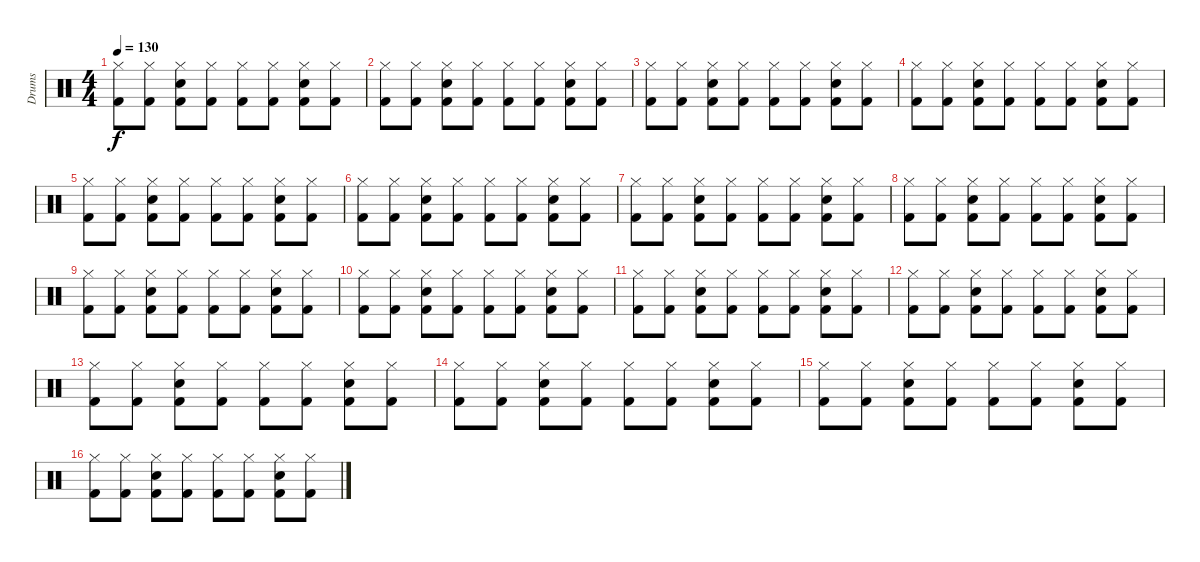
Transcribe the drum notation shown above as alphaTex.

\track ("Drums" "Drums") {instrument percussion}
\staff {score}
\articulation defaults
\ts (4 4)
\tempo 130
\clef neutral
\ks c
("Kick (hit) 2" "Hi-Hat (closed)").8{dy f} ("Kick (hit) 2" "Hi-Hat (closed)").8 ("Snare (hit) 2" "Kick (hit) 2" "Hi-Hat (closed)").8 ("Kick (hit) 2" "Hi-Hat (closed)").8 ("Kick (hit) 2" "Hi-Hat (closed)").8 ("Kick (hit) 2" "Hi-Hat (closed)").8 ("Snare (hit) 2" "Kick (hit) 2" "Hi-Hat (closed)").8 ("Kick (hit) 2" "Hi-Hat (closed)").8 |
("Kick (hit) 2" "Hi-Hat (closed)").8 ("Kick (hit) 2" "Hi-Hat (closed)").8 ("Snare (hit) 2" "Kick (hit) 2" "Hi-Hat (closed)").8 ("Kick (hit) 2" "Hi-Hat (closed)").8 ("Kick (hit) 2" "Hi-Hat (closed)").8 ("Kick (hit) 2" "Hi-Hat (closed)").8 ("Snare (hit) 2" "Kick (hit) 2" "Hi-Hat (closed)").8 ("Kick (hit) 2" "Hi-Hat (closed)").8 |
("Kick (hit) 2" "Hi-Hat (closed)").8 ("Kick (hit) 2" "Hi-Hat (closed)").8 ("Snare (hit) 2" "Kick (hit) 2" "Hi-Hat (closed)").8 ("Kick (hit) 2" "Hi-Hat (closed)").8 ("Kick (hit) 2" "Hi-Hat (closed)").8 ("Kick (hit) 2" "Hi-Hat (closed)").8 ("Snare (hit) 2" "Kick (hit) 2" "Hi-Hat (closed)").8 ("Kick (hit) 2" "Hi-Hat (closed)").8 |
("Kick (hit) 2" "Hi-Hat (closed)").8 ("Kick (hit) 2" "Hi-Hat (closed)").8 ("Snare (hit) 2" "Kick (hit) 2" "Hi-Hat (closed)").8 ("Kick (hit) 2" "Hi-Hat (closed)").8 ("Kick (hit) 2" "Hi-Hat (closed)").8 ("Kick (hit) 2" "Hi-Hat (closed)").8 ("Snare (hit) 2" "Kick (hit) 2" "Hi-Hat (closed)").8 ("Kick (hit) 2" "Hi-Hat (closed)").8 |
("Kick (hit) 2" "Hi-Hat (closed)").8 ("Kick (hit) 2" "Hi-Hat (closed)").8 ("Snare (hit) 2" "Kick (hit) 2" "Hi-Hat (closed)").8 ("Kick (hit) 2" "Hi-Hat (closed)").8 ("Kick (hit) 2" "Hi-Hat (closed)").8 ("Kick (hit) 2" "Hi-Hat (closed)").8 ("Snare (hit) 2" "Kick (hit) 2" "Hi-Hat (closed)").8 ("Kick (hit) 2" "Hi-Hat (closed)").8 |
("Kick (hit) 2" "Hi-Hat (closed)").8 ("Kick (hit) 2" "Hi-Hat (closed)").8 ("Snare (hit) 2" "Kick (hit) 2" "Hi-Hat (closed)").8 ("Kick (hit) 2" "Hi-Hat (closed)").8 ("Kick (hit) 2" "Hi-Hat (closed)").8 ("Kick (hit) 2" "Hi-Hat (closed)").8 ("Snare (hit) 2" "Kick (hit) 2" "Hi-Hat (closed)").8 ("Kick (hit) 2" "Hi-Hat (closed)").8 |
("Kick (hit) 2" "Hi-Hat (closed)").8 ("Kick (hit) 2" "Hi-Hat (closed)").8 ("Snare (hit) 2" "Kick (hit) 2" "Hi-Hat (closed)").8 ("Kick (hit) 2" "Hi-Hat (closed)").8 ("Kick (hit) 2" "Hi-Hat (closed)").8 ("Kick (hit) 2" "Hi-Hat (closed)").8 ("Snare (hit) 2" "Kick (hit) 2" "Hi-Hat (closed)").8 ("Kick (hit) 2" "Hi-Hat (closed)").8 |
("Kick (hit) 2" "Hi-Hat (closed)").8 ("Kick (hit) 2" "Hi-Hat (closed)").8 ("Snare (hit) 2" "Kick (hit) 2" "Hi-Hat (closed)").8 ("Kick (hit) 2" "Hi-Hat (closed)").8 ("Kick (hit) 2" "Hi-Hat (closed)").8 ("Kick (hit) 2" "Hi-Hat (closed)").8 ("Snare (hit) 2" "Kick (hit) 2" "Hi-Hat (closed)").8 ("Kick (hit) 2" "Hi-Hat (closed)").8 |
("Kick (hit) 2" "Hi-Hat (closed)").8 ("Kick (hit) 2" "Hi-Hat (closed)").8 ("Snare (hit) 2" "Kick (hit) 2" "Hi-Hat (closed)").8 ("Kick (hit) 2" "Hi-Hat (closed)").8 ("Kick (hit) 2" "Hi-Hat (closed)").8 ("Kick (hit) 2" "Hi-Hat (closed)").8 ("Snare (hit) 2" "Kick (hit) 2" "Hi-Hat (closed)").8 ("Kick (hit) 2" "Hi-Hat (closed)").8 |
("Kick (hit) 2" "Hi-Hat (closed)").8 ("Kick (hit) 2" "Hi-Hat (closed)").8 ("Snare (hit) 2" "Kick (hit) 2" "Hi-Hat (closed)").8 ("Kick (hit) 2" "Hi-Hat (closed)").8 ("Kick (hit) 2" "Hi-Hat (closed)").8 ("Kick (hit) 2" "Hi-Hat (closed)").8 ("Snare (hit) 2" "Kick (hit) 2" "Hi-Hat (closed)").8 ("Kick (hit) 2" "Hi-Hat (closed)").8 |
("Kick (hit) 2" "Hi-Hat (closed)").8 ("Kick (hit) 2" "Hi-Hat (closed)").8 ("Snare (hit) 2" "Kick (hit) 2" "Hi-Hat (closed)").8 ("Kick (hit) 2" "Hi-Hat (closed)").8 ("Kick (hit) 2" "Hi-Hat (closed)").8 ("Kick (hit) 2" "Hi-Hat (closed)").8 ("Snare (hit) 2" "Kick (hit) 2" "Hi-Hat (closed)").8 ("Kick (hit) 2" "Hi-Hat (closed)").8 |
("Kick (hit) 2" "Hi-Hat (closed)").8 ("Kick (hit) 2" "Hi-Hat (closed)").8 ("Snare (hit) 2" "Kick (hit) 2" "Hi-Hat (closed)").8 ("Kick (hit) 2" "Hi-Hat (closed)").8 ("Kick (hit) 2" "Hi-Hat (closed)").8 ("Kick (hit) 2" "Hi-Hat (closed)").8 ("Snare (hit) 2" "Kick (hit) 2" "Hi-Hat (closed)").8 ("Kick (hit) 2" "Hi-Hat (closed)").8 |
("Kick (hit) 2" "Hi-Hat (closed)").8 ("Kick (hit) 2" "Hi-Hat (closed)").8 ("Snare (hit) 2" "Kick (hit) 2" "Hi-Hat (closed)").8 ("Kick (hit) 2" "Hi-Hat (closed)").8 ("Kick (hit) 2" "Hi-Hat (closed)").8 ("Kick (hit) 2" "Hi-Hat (closed)").8 ("Snare (hit) 2" "Kick (hit) 2" "Hi-Hat (closed)").8 ("Kick (hit) 2" "Hi-Hat (closed)").8 |
("Kick (hit) 2" "Hi-Hat (closed)").8 ("Kick (hit) 2" "Hi-Hat (closed)").8 ("Snare (hit) 2" "Kick (hit) 2" "Hi-Hat (closed)").8 ("Kick (hit) 2" "Hi-Hat (closed)").8 ("Kick (hit) 2" "Hi-Hat (closed)").8 ("Kick (hit) 2" "Hi-Hat (closed)").8 ("Snare (hit) 2" "Kick (hit) 2" "Hi-Hat (closed)").8 ("Kick (hit) 2" "Hi-Hat (closed)").8 |
("Kick (hit) 2" "Hi-Hat (closed)").8 ("Kick (hit) 2" "Hi-Hat (closed)").8 ("Snare (hit) 2" "Kick (hit) 2" "Hi-Hat (closed)").8 ("Kick (hit) 2" "Hi-Hat (closed)").8 ("Kick (hit) 2" "Hi-Hat (closed)").8 ("Kick (hit) 2" "Hi-Hat (closed)").8 ("Snare (hit) 2" "Kick (hit) 2" "Hi-Hat (closed)").8 ("Kick (hit) 2" "Hi-Hat (closed)").8 |
("Kick (hit) 2" "Hi-Hat (closed)").8 ("Kick (hit) 2" "Hi-Hat (closed)").8 ("Snare (hit) 2" "Kick (hit) 2" "Hi-Hat (closed)").8 ("Kick (hit) 2" "Hi-Hat (closed)").8 ("Kick (hit) 2" "Hi-Hat (closed)").8 ("Kick (hit) 2" "Hi-Hat (closed)").8 ("Snare (hit) 2" "Kick (hit) 2" "Hi-Hat (closed)").8 ("Kick (hit) 2" "Hi-Hat (closed)").8
